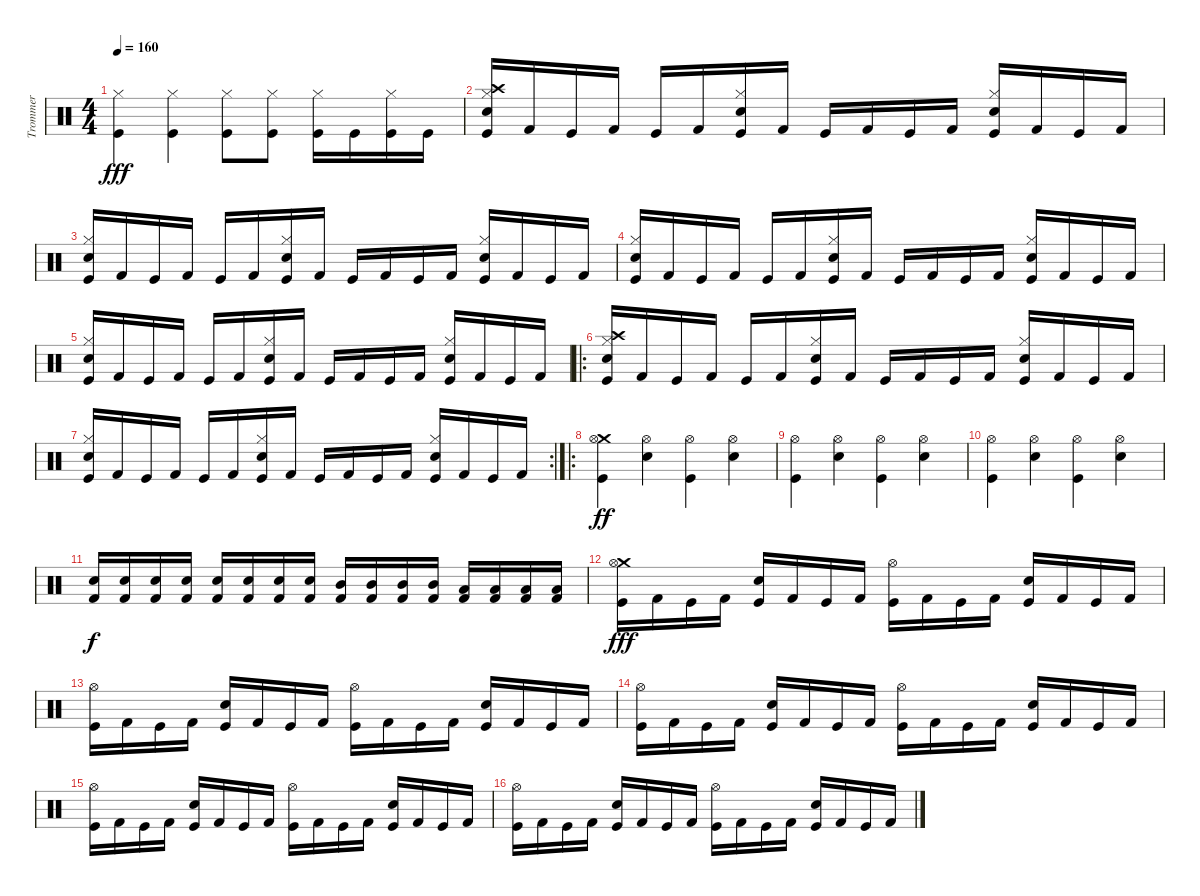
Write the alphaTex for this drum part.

\track ("Trommer" "Trommer") {instrument percussion}
\staff {score}
\articulation defaults
\ts (4 4)
\tempo 160
\clef neutral
\ks c
("Kick (hit)" "Hi-Hat (closed)").4{dy fff} ("Kick (hit)" "Hi-Hat (closed)").4 ("Kick (hit)" "Hi-Hat (closed)").8 ("Kick (hit)" "Hi-Hat (closed)").8 ("Hi-Hat (closed)" "Kick (hit)").16 "Kick (hit)".16 ("Hi-Hat (closed)" "Kick (hit)").16 "Kick (hit)".16 |
("Hi-Hat (closed)" "Crash high (hit)" "Snare (hit) 2" "Kick (hit)").16 "Kick (hit) 2".16 "Kick (hit)".16 "Kick (hit) 2".16 "Kick (hit)".16 "Kick (hit) 2".16 ("Hi-Hat (closed)" "Snare (hit) 2" "Kick (hit)").16 "Kick (hit) 2".16 "Kick (hit)".16 "Kick (hit) 2".16 "Kick (hit)".16 "Kick (hit) 2".16 ("Hi-Hat (closed)" "Snare (hit) 2" "Kick (hit)").16 "Kick (hit) 2".16 "Kick (hit)".16 "Kick (hit) 2".16 |
("Hi-Hat (closed)" "Snare (hit) 2" "Kick (hit)").16 "Kick (hit) 2".16 "Kick (hit)".16 "Kick (hit) 2".16 "Kick (hit)".16 "Kick (hit) 2".16 ("Hi-Hat (closed)" "Snare (hit) 2" "Kick (hit)").16 "Kick (hit) 2".16 "Kick (hit)".16 "Kick (hit) 2".16 "Kick (hit)".16 "Kick (hit) 2".16 ("Hi-Hat (closed)" "Snare (hit) 2" "Kick (hit)").16 "Kick (hit) 2".16 "Kick (hit)".16 "Kick (hit) 2".16 |
("Hi-Hat (closed)" "Snare (hit) 2" "Kick (hit)").16 "Kick (hit) 2".16 "Kick (hit)".16 "Kick (hit) 2".16 "Kick (hit)".16 "Kick (hit) 2".16 ("Hi-Hat (closed)" "Snare (hit) 2" "Kick (hit)").16 "Kick (hit) 2".16 "Kick (hit)".16 "Kick (hit) 2".16 "Kick (hit)".16 "Kick (hit) 2".16 ("Hi-Hat (closed)" "Snare (hit) 2" "Kick (hit)").16 "Kick (hit) 2".16 "Kick (hit)".16 "Kick (hit) 2".16 |
("Hi-Hat (closed)" "Snare (hit) 2" "Kick (hit)").16 "Kick (hit) 2".16 "Kick (hit)".16 "Kick (hit) 2".16 "Kick (hit)".16 "Kick (hit) 2".16 ("Hi-Hat (closed)" "Snare (hit) 2" "Kick (hit)").16 "Kick (hit) 2".16 "Kick (hit)".16 "Kick (hit) 2".16 "Kick (hit)".16 "Kick (hit) 2".16 ("Hi-Hat (closed)" "Snare (hit) 2" "Kick (hit)").16 "Kick (hit) 2".16 "Kick (hit)".16 "Kick (hit) 2".16 |
\ro
("Hi-Hat (closed)" "Crash high (hit)" "Snare (hit) 2" "Kick (hit)").16 "Kick (hit) 2".16 "Kick (hit)".16 "Kick (hit) 2".16 "Kick (hit)".16 "Kick (hit) 2".16 ("Hi-Hat (closed)" "Snare (hit) 2" "Kick (hit)").16 "Kick (hit) 2".16 "Kick (hit)".16 "Kick (hit) 2".16 "Kick (hit)".16 "Kick (hit) 2".16 ("Hi-Hat (closed)" "Snare (hit) 2" "Kick (hit)").16 "Kick (hit) 2".16 "Kick (hit)".16 "Kick (hit) 2".16 |
\rc 2
("Hi-Hat (closed)" "Snare (hit) 2" "Kick (hit)").16 "Kick (hit) 2".16 "Kick (hit)".16 "Kick (hit) 2".16 "Kick (hit)".16 "Kick (hit) 2".16 ("Hi-Hat (closed)" "Snare (hit) 2" "Kick (hit)").16 "Kick (hit) 2".16 "Kick (hit)".16 "Kick (hit) 2".16 "Kick (hit)".16 "Kick (hit) 2".16 ("Hi-Hat (closed)" "Snare (hit) 2" "Kick (hit)").16 "Kick (hit) 2".16 "Kick (hit)".16 "Kick (hit) 2".16 |
\ro
("Crash medium (hit)" "Kick (hit)" "Hi-Hat (open)").4{dy ff} ("Snare (hit) 2" "Hi-Hat (open)").4 ("Kick (hit)" "Hi-Hat (open)").4 ("Snare (hit) 2" "Hi-Hat (open)").4 |
("Kick (hit)" "Hi-Hat (open)").4 ("Snare (hit) 2" "Hi-Hat (open)").4 ("Kick (hit)" "Hi-Hat (open)").4 ("Snare (hit) 2" "Hi-Hat (open)").4 |
("Kick (hit)" "Hi-Hat (open)").4 ("Snare (hit) 2" "Hi-Hat (open)").4 ("Kick (hit)" "Hi-Hat (open)").4 ("Snare (hit) 2" "Hi-Hat (open)").4 |
("Snare (hit) 2" "Kick (hit) 2").16{dy f} ("Snare (hit) 2" "Kick (hit) 2").16 ("Snare (hit) 2" "Kick (hit) 2").16 ("Snare (hit) 2" "Kick (hit) 2").16 ("Snare (hit) 2" "Kick (hit) 2").16 ("Snare (hit) 2" "Kick (hit) 2").16 ("Snare (hit) 2" "Kick (hit) 2").16 ("Snare (hit) 2" "Kick (hit) 2").16 ("Mid Tom (hit)" "Kick (hit) 2").16 ("Mid Tom (hit)" "Kick (hit) 2").16 ("Mid Tom (hit)" "Kick (hit) 2").16 ("Mid Tom (hit)" "Kick (hit) 2").16 ("Low Tom (hit)" "Kick (hit) 2").16 ("Low Tom (hit)" "Kick (hit) 2").16 ("Low Tom (hit)" "Kick (hit) 2").16 ("Low Tom (hit)" "Kick (hit) 2").16 |
("Crash medium (hit)" "Hi-Hat (open)" "Kick (hit)").16{dy fff} "Kick (hit) 2".16 "Kick (hit)".16 "Kick (hit) 2".16 ("Snare (hit) 2" "Kick (hit)").16 "Kick (hit) 2".16 "Kick (hit)".16 "Kick (hit) 2".16 ("Hi-Hat (open)" "Kick (hit)").16 "Kick (hit) 2".16 "Kick (hit)".16 "Kick (hit) 2".16 ("Snare (hit) 2" "Kick (hit)").16 "Kick (hit) 2".16 "Kick (hit)".16 "Kick (hit) 2".16 |
("Hi-Hat (open)" "Kick (hit)").16 "Kick (hit) 2".16 "Kick (hit)".16 "Kick (hit) 2".16 ("Snare (hit) 2" "Kick (hit)").16 "Kick (hit) 2".16 "Kick (hit)".16 "Kick (hit) 2".16 ("Hi-Hat (open)" "Kick (hit)").16 "Kick (hit) 2".16 "Kick (hit)".16 "Kick (hit) 2".16 ("Snare (hit) 2" "Kick (hit)").16 "Kick (hit) 2".16 "Kick (hit)".16 "Kick (hit) 2".16 |
("Hi-Hat (open)" "Kick (hit)").16 "Kick (hit) 2".16 "Kick (hit)".16 "Kick (hit) 2".16 ("Snare (hit) 2" "Kick (hit)").16 "Kick (hit) 2".16 "Kick (hit)".16 "Kick (hit) 2".16 ("Hi-Hat (open)" "Kick (hit)").16 "Kick (hit) 2".16 "Kick (hit)".16 "Kick (hit) 2".16 ("Snare (hit) 2" "Kick (hit)").16 "Kick (hit) 2".16 "Kick (hit)".16 "Kick (hit) 2".16 |
("Hi-Hat (open)" "Kick (hit)").16 "Kick (hit) 2".16 "Kick (hit)".16 "Kick (hit) 2".16 ("Snare (hit) 2" "Kick (hit)").16 "Kick (hit) 2".16 "Kick (hit)".16 "Kick (hit) 2".16 ("Hi-Hat (open)" "Kick (hit)").16 "Kick (hit) 2".16 "Kick (hit)".16 "Kick (hit) 2".16 ("Snare (hit) 2" "Kick (hit)").16 "Kick (hit) 2".16 "Kick (hit)".16 "Kick (hit) 2".16 |
("Hi-Hat (open)" "Kick (hit)").16 "Kick (hit) 2".16 "Kick (hit)".16 "Kick (hit) 2".16 ("Snare (hit) 2" "Kick (hit)").16 "Kick (hit) 2".16 "Kick (hit)".16 "Kick (hit) 2".16 ("Hi-Hat (open)" "Kick (hit)").16 "Kick (hit) 2".16 "Kick (hit)".16 "Kick (hit) 2".16 ("Snare (hit) 2" "Kick (hit)").16 "Kick (hit) 2".16 "Kick (hit)".16 "Kick (hit) 2".16
